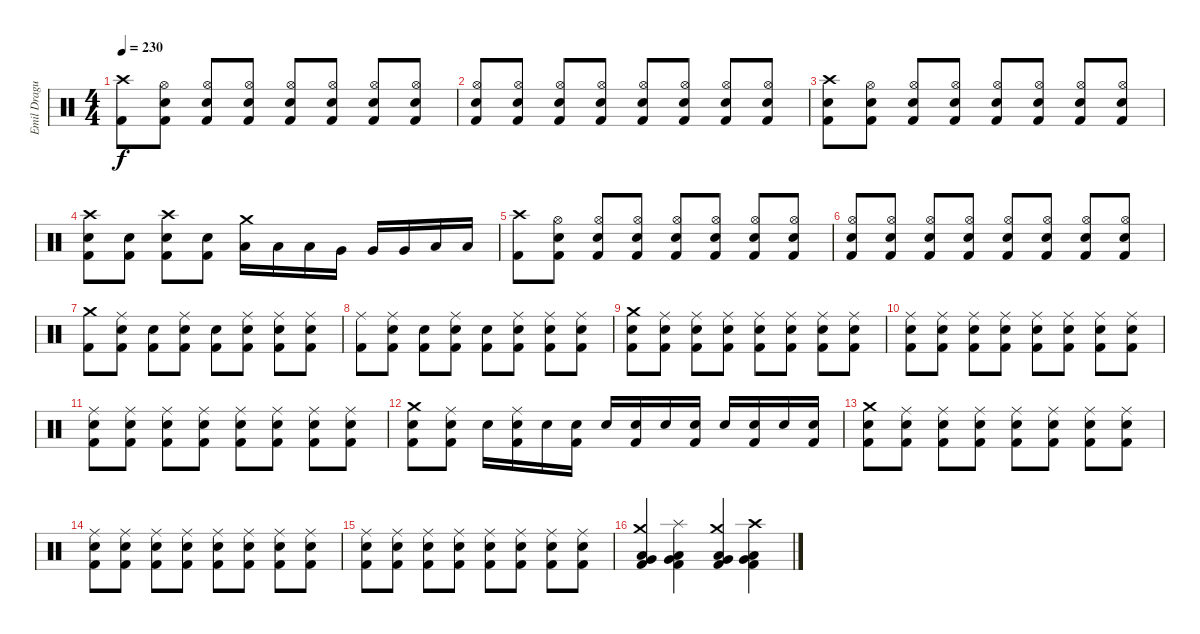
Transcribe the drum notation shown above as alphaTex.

\track ("Emil Dragutinovic" "Emil Dragu") {instrument percussion}
\staff {score}
\articulation defaults
\ts (4 4)
\tempo 230
\clef neutral
\ks c
("Crash high (hit)" "Kick (hit) 2").8{dy f} ("Hi-Hat (open)" "Electric Snare (hit)" "Kick (hit) 2").8 ("Hi-Hat (open)" "Electric Snare (hit)" "Kick (hit) 2").8 ("Hi-Hat (open)" "Electric Snare (hit)" "Kick (hit) 2").8 ("Hi-Hat (open)" "Electric Snare (hit)" "Kick (hit) 2").8 ("Hi-Hat (open)" "Electric Snare (hit)" "Kick (hit) 2").8 ("Hi-Hat (open)" "Electric Snare (hit)" "Kick (hit) 2").8 ("Hi-Hat (open)" "Electric Snare (hit)" "Kick (hit) 2").8 |
("Hi-Hat (open)" "Electric Snare (hit)" "Kick (hit) 2").8 ("Hi-Hat (open)" "Electric Snare (hit)" "Kick (hit) 2").8 ("Hi-Hat (open)" "Electric Snare (hit)" "Kick (hit) 2").8 ("Hi-Hat (open)" "Electric Snare (hit)" "Kick (hit) 2").8 ("Hi-Hat (open)" "Electric Snare (hit)" "Kick (hit) 2").8 ("Hi-Hat (open)" "Electric Snare (hit)" "Kick (hit) 2").8 ("Hi-Hat (open)" "Electric Snare (hit)" "Kick (hit) 2").8 ("Hi-Hat (open)" "Electric Snare (hit)" "Kick (hit) 2").8 |
("Crash high (hit)" "Electric Snare (hit)" "Kick (hit) 2").8 ("Hi-Hat (open)" "Electric Snare (hit)" "Kick (hit) 2").8 ("Hi-Hat (open)" "Electric Snare (hit)" "Kick (hit) 2").8 ("Hi-Hat (open)" "Electric Snare (hit)" "Kick (hit) 2").8 ("Hi-Hat (open)" "Electric Snare (hit)" "Kick (hit) 2").8 ("Hi-Hat (open)" "Electric Snare (hit)" "Kick (hit) 2").8 ("Hi-Hat (open)" "Electric Snare (hit)" "Kick (hit) 2").8 ("Hi-Hat (open)" "Electric Snare (hit)" "Kick (hit) 2").8 |
("Crash high (hit)" "Electric Snare (hit)" "Kick (hit) 2").8 ("Electric Snare (hit)" "Kick (hit) 2").8 ("Crash high (hit)" "Electric Snare (hit)" "Kick (hit) 2").8 ("Electric Snare (hit)" "Kick (hit) 2").8 ("Crash medium (hit)" "Low Tom (hit)").16 "Low Tom (hit)".16 "Low Tom (hit)".16 "Very Low Tom (hit)".16 "Very Low Tom (hit)".16 "Very Low Tom (hit)".16 "Low Floor Tom (hit)".16 "Low Floor Tom (hit)".16 |
("Crash high (hit)" "Kick (hit) 2").8 ("Hi-Hat (open)" "Electric Snare (hit)" "Kick (hit) 2").8 ("Hi-Hat (open)" "Electric Snare (hit)" "Kick (hit) 2").8 ("Hi-Hat (open)" "Electric Snare (hit)" "Kick (hit) 2").8 ("Hi-Hat (open)" "Electric Snare (hit)" "Kick (hit) 2").8 ("Hi-Hat (open)" "Electric Snare (hit)" "Kick (hit) 2").8 ("Hi-Hat (open)" "Electric Snare (hit)" "Kick (hit) 2").8 ("Hi-Hat (open)" "Electric Snare (hit)" "Kick (hit) 2").8 |
("Hi-Hat (open)" "Electric Snare (hit)" "Kick (hit) 2").8 ("Hi-Hat (open)" "Electric Snare (hit)" "Kick (hit) 2").8 ("Hi-Hat (open)" "Electric Snare (hit)" "Kick (hit) 2").8 ("Hi-Hat (open)" "Electric Snare (hit)" "Kick (hit) 2").8 ("Hi-Hat (open)" "Electric Snare (hit)" "Kick (hit) 2").8 ("Hi-Hat (open)" "Electric Snare (hit)" "Kick (hit) 2").8 ("Hi-Hat (open)" "Electric Snare (hit)" "Kick (hit) 2").8 ("Hi-Hat (open)" "Electric Snare (hit)" "Kick (hit) 2").8 |
("Crash medium (hit)" "Kick (hit) 2").8 ("Ride (middle)" "Electric Snare (hit)" "Kick (hit) 2").8 ("Electric Snare (hit)" "Kick (hit) 2").8 ("Ride (middle)" "Electric Snare (hit)" "Kick (hit) 2").8 ("Electric Snare (hit)" "Kick (hit) 2").8 ("Ride (middle)" "Electric Snare (hit)" "Kick (hit) 2").8 ("Ride (middle)" "Electric Snare (hit)" "Kick (hit) 2").8 ("Ride (middle)" "Electric Snare (hit)" "Kick (hit) 2").8 |
("Ride (middle)" "Kick (hit) 2").8 ("Ride (middle)" "Electric Snare (hit)" "Kick (hit) 2").8 ("Electric Snare (hit)" "Kick (hit) 2").8 ("Ride (middle)" "Electric Snare (hit)" "Kick (hit) 2").8 ("Electric Snare (hit)" "Kick (hit) 2").8 ("Ride (middle)" "Electric Snare (hit)" "Kick (hit) 2").8 ("Ride (middle)" "Electric Snare (hit)" "Kick (hit) 2").8 ("Ride (middle)" "Electric Snare (hit)" "Kick (hit) 2").8 |
("Crash medium (hit)" "Electric Snare (hit)" "Kick (hit) 2").8 ("Ride (middle)" "Electric Snare (hit)" "Kick (hit) 2").8 ("Ride (middle)" "Electric Snare (hit)" "Kick (hit) 2").8 ("Ride (middle)" "Electric Snare (hit)" "Kick (hit) 2").8 ("Ride (middle)" "Electric Snare (hit)" "Kick (hit) 2").8 ("Ride (middle)" "Electric Snare (hit)" "Kick (hit) 2").8 ("Ride (middle)" "Electric Snare (hit)" "Kick (hit) 2").8 ("Ride (middle)" "Electric Snare (hit)" "Kick (hit) 2").8 |
("Ride (middle)" "Electric Snare (hit)" "Kick (hit) 2").8 ("Ride (middle)" "Electric Snare (hit)" "Kick (hit) 2").8 ("Ride (middle)" "Electric Snare (hit)" "Kick (hit) 2").8 ("Ride (middle)" "Electric Snare (hit)" "Kick (hit) 2").8 ("Ride (middle)" "Electric Snare (hit)" "Kick (hit) 2").8 ("Ride (middle)" "Electric Snare (hit)" "Kick (hit) 2").8 ("Ride (middle)" "Electric Snare (hit)" "Kick (hit) 2").8 ("Ride (middle)" "Electric Snare (hit)" "Kick (hit) 2").8 |
("Ride (middle)" "Electric Snare (hit)" "Kick (hit) 2").8 ("Ride (middle)" "Electric Snare (hit)" "Kick (hit) 2").8 ("Ride (middle)" "Electric Snare (hit)" "Kick (hit) 2").8 ("Ride (middle)" "Electric Snare (hit)" "Kick (hit) 2").8 ("Ride (middle)" "Electric Snare (hit)" "Kick (hit) 2").8 ("Ride (middle)" "Electric Snare (hit)" "Kick (hit) 2").8 ("Ride (middle)" "Electric Snare (hit)" "Kick (hit) 2").8 ("Ride (middle)" "Electric Snare (hit)" "Kick (hit) 2").8 |
("Crash medium (hit)" "Electric Snare (hit)" "Kick (hit) 2").8 ("Ride (middle)" "Electric Snare (hit)" "Kick (hit) 2").8 "Electric Snare (hit)".16 ("Ride (middle)" "Electric Snare (hit)" "Kick (hit) 2").16 "Electric Snare (hit)".16 ("Electric Snare (hit)" "Kick (hit) 2").16 "Electric Snare (hit)".16 ("Electric Snare (hit)" "Kick (hit) 2").16 "Electric Snare (hit)".16 ("Electric Snare (hit)" "Kick (hit) 2").16 "Electric Snare (hit)".16 ("Electric Snare (hit)" "Kick (hit) 2").16 "Electric Snare (hit)".16 ("Electric Snare (hit)" "Kick (hit) 2").16 |
("Crash medium (hit)" "Electric Snare (hit)" "Kick (hit) 2").8 ("Ride (middle)" "Electric Snare (hit)" "Kick (hit) 2").8 ("Ride (middle)" "Electric Snare (hit)" "Kick (hit) 2").8 ("Ride (middle)" "Electric Snare (hit)" "Kick (hit) 2").8 ("Ride (middle)" "Electric Snare (hit)" "Kick (hit) 2").8 ("Ride (middle)" "Electric Snare (hit)" "Kick (hit) 2").8 ("Ride (middle)" "Electric Snare (hit)" "Kick (hit) 2").8 ("Ride (middle)" "Electric Snare (hit)" "Kick (hit) 2").8 |
("Ride (middle)" "Electric Snare (hit)" "Kick (hit) 2").8 ("Ride (middle)" "Electric Snare (hit)" "Kick (hit) 2").8 ("Ride (middle)" "Electric Snare (hit)" "Kick (hit) 2").8 ("Ride (middle)" "Electric Snare (hit)" "Kick (hit) 2").8 ("Ride (middle)" "Electric Snare (hit)" "Kick (hit) 2").8 ("Ride (middle)" "Electric Snare (hit)" "Kick (hit) 2").8 ("Ride (middle)" "Electric Snare (hit)" "Kick (hit) 2").8 ("Ride (middle)" "Electric Snare (hit)" "Kick (hit) 2").8 |
("Ride (middle)" "Electric Snare (hit)" "Kick (hit) 2").8 ("Ride (middle)" "Electric Snare (hit)" "Kick (hit) 2").8 ("Ride (middle)" "Electric Snare (hit)" "Kick (hit) 2").8 ("Ride (middle)" "Electric Snare (hit)" "Kick (hit) 2").8 ("Ride (middle)" "Electric Snare (hit)" "Kick (hit) 2").8 ("Ride (middle)" "Electric Snare (hit)" "Kick (hit) 2").8 ("Ride (middle)" "Electric Snare (hit)" "Kick (hit) 2").8 ("Ride (middle)" "Electric Snare (hit)" "Kick (hit) 2").8 |
("Crash medium (hit)" "Very Low Tom (hit)" "Low Tom (hit)" "Kick (hit) 2").4 ("Splash (hit)" "Very Low Tom (hit)" "Low Tom (hit)" "Kick (hit) 2").4 ("Crash medium (hit)" "Low Floor Tom (hit)" "Very Low Tom (hit)" "Kick (hit) 2").4 ("Crash high (hit)" "Low Floor Tom (hit)" "Very Low Tom (hit)" "Kick (hit) 2").4
